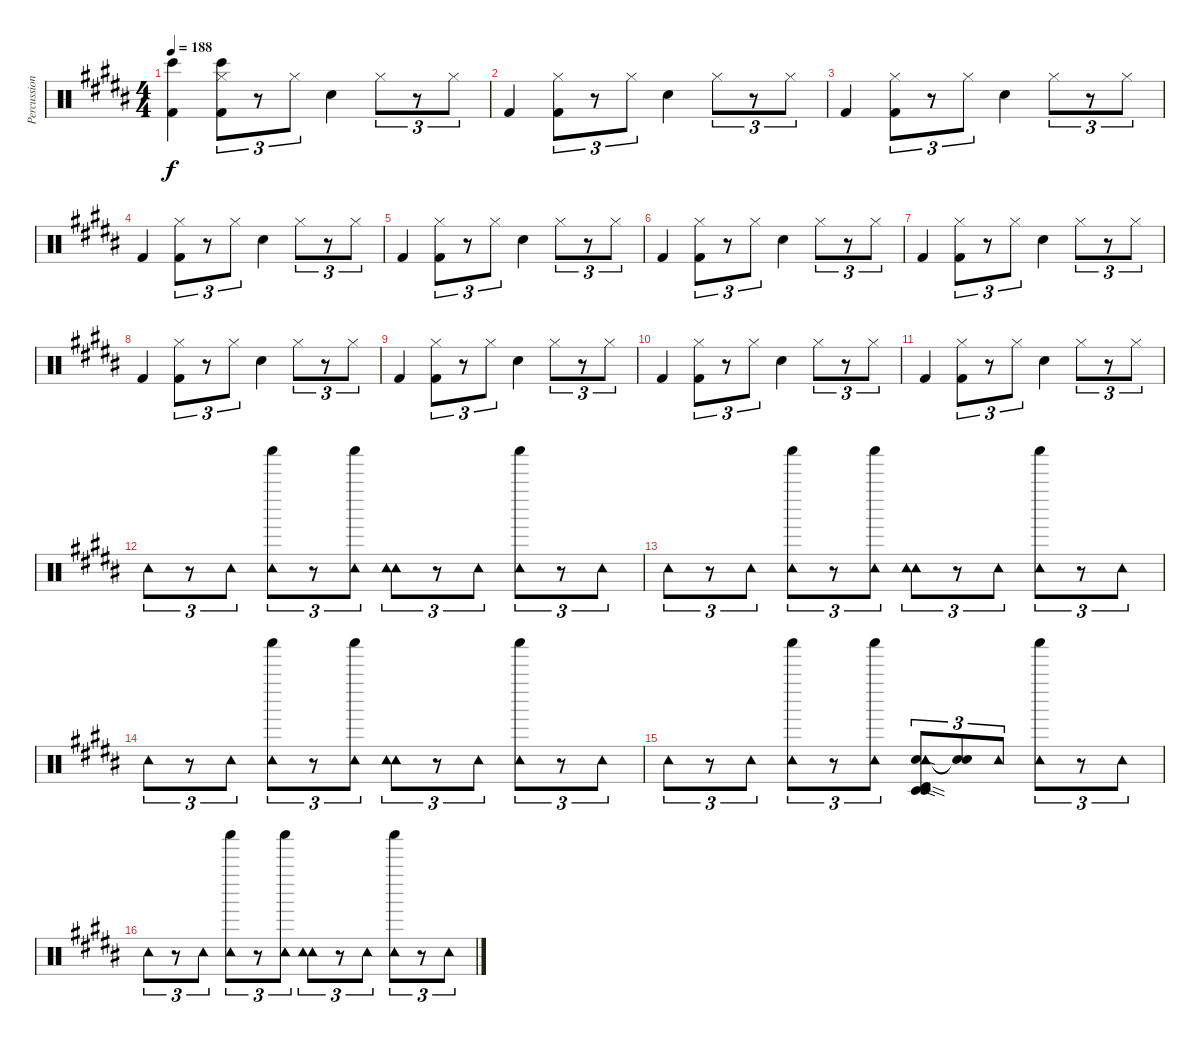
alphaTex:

\track ("Percussion" "Percussion") {instrument percussion}
\staff {score}
\articulation defaults
\ts (4 4)
\tempo 188
\clef neutral
\ks b
("Bongo High (hit)" "Kick (hit) 2").4{dy f} ("Bongo High (hit)" "Hi-Hat (closed)" "Kick (hit) 2").8{tu (3 2)} r.8{tu (3 2)} "Hi-Hat (closed)".8{tu (3 2)} "Electric Snare (hit)".4 "Hi-Hat (closed)".8{tu (3 2)} r.8{tu (3 2)} "Hi-Hat (closed)".8{tu (3 2)} |
"Kick (hit) 2".4 ("Hi-Hat (closed)" "Kick (hit) 2").8{tu (3 2)} r.8{tu (3 2)} "Hi-Hat (closed)".8{tu (3 2)} "Electric Snare (hit)".4 "Hi-Hat (closed)".8{tu (3 2)} r.8{tu (3 2)} "Hi-Hat (closed)".8{tu (3 2)} |
"Kick (hit) 2".4 ("Hi-Hat (closed)" "Kick (hit) 2").8{tu (3 2)} r.8{tu (3 2)} "Hi-Hat (closed)".8{tu (3 2)} "Electric Snare (hit)".4 "Hi-Hat (closed)".8{tu (3 2)} r.8{tu (3 2)} "Hi-Hat (closed)".8{tu (3 2)} |
"Kick (hit) 2".4 ("Hi-Hat (closed)" "Kick (hit) 2").8{tu (3 2)} r.8{tu (3 2)} "Hi-Hat (closed)".8{tu (3 2)} "Electric Snare (hit)".4 "Hi-Hat (closed)".8{tu (3 2)} r.8{tu (3 2)} "Hi-Hat (closed)".8{tu (3 2)} |
"Kick (hit) 2".4 ("Hi-Hat (closed)" "Kick (hit) 2").8{tu (3 2)} r.8{tu (3 2)} "Hi-Hat (closed)".8{tu (3 2)} "Electric Snare (hit)".4 "Hi-Hat (closed)".8{tu (3 2)} r.8{tu (3 2)} "Hi-Hat (closed)".8{tu (3 2)} |
"Kick (hit) 2".4 ("Hi-Hat (closed)" "Kick (hit) 2").8{tu (3 2)} r.8{tu (3 2)} "Hi-Hat (closed)".8{tu (3 2)} "Electric Snare (hit)".4 "Hi-Hat (closed)".8{tu (3 2)} r.8{tu (3 2)} "Hi-Hat (closed)".8{tu (3 2)} |
"Kick (hit) 2".4 ("Hi-Hat (closed)" "Kick (hit) 2").8{tu (3 2)} r.8{tu (3 2)} "Hi-Hat (closed)".8{tu (3 2)} "Electric Snare (hit)".4 "Hi-Hat (closed)".8{tu (3 2)} r.8{tu (3 2)} "Hi-Hat (closed)".8{tu (3 2)} |
"Kick (hit) 2".4 ("Hi-Hat (closed)" "Kick (hit) 2").8{tu (3 2)} r.8{tu (3 2)} "Hi-Hat (closed)".8{tu (3 2)} "Electric Snare (hit)".4 "Hi-Hat (closed)".8{tu (3 2)} r.8{tu (3 2)} "Hi-Hat (closed)".8{tu (3 2)} |
"Kick (hit) 2".4 ("Hi-Hat (closed)" "Kick (hit) 2").8{tu (3 2)} r.8{tu (3 2)} "Hi-Hat (closed)".8{tu (3 2)} "Electric Snare (hit)".4 "Hi-Hat (closed)".8{tu (3 2)} r.8{tu (3 2)} "Hi-Hat (closed)".8{tu (3 2)} |
"Kick (hit) 2".4 ("Hi-Hat (closed)" "Kick (hit) 2").8{tu (3 2)} r.8{tu (3 2)} "Hi-Hat (closed)".8{tu (3 2)} "Electric Snare (hit)".4 "Hi-Hat (closed)".8{tu (3 2)} r.8{tu (3 2)} "Hi-Hat (closed)".8{tu (3 2)} |
"Kick (hit) 2".4 ("Hi-Hat (closed)" "Kick (hit) 2").8{tu (3 2)} r.8{tu (3 2)} "Hi-Hat (closed)".8{tu (3 2)} "Electric Snare (hit)".4 "Hi-Hat (closed)".8{tu (3 2)} r.8{tu (3 2)} "Hi-Hat (closed)".8{tu (3 2)} |
"Tambourine (hit)".8{tu (3 2)} r.8{tu (3 2)} "Tambourine (hit)".8{tu (3 2)} ("Shaker (hit)" "Tambourine (hit)").8{tu (3 2)} r.8{tu (3 2)} ("Shaker (hit)" "Tambourine (hit)").8{tu (3 2)} ("Tambourine (hit)" "Tambourine (hit)").8{tu (3 2)} r.8{tu (3 2)} "Tambourine (hit)".8{tu (3 2)} ("Shaker (hit)" "Tambourine (hit)").8{tu (3 2)} r.8{tu (3 2)} "Tambourine (hit)".8{tu (3 2)} |
"Tambourine (hit)".8{tu (3 2)} r.8{tu (3 2)} "Tambourine (hit)".8{tu (3 2)} ("Shaker (hit)" "Tambourine (hit)").8{tu (3 2)} r.8{tu (3 2)} ("Shaker (hit)" "Tambourine (hit)").8{tu (3 2)} ("Tambourine (hit)" "Tambourine (hit)").8{tu (3 2)} r.8{tu (3 2)} "Tambourine (hit)".8{tu (3 2)} ("Shaker (hit)" "Tambourine (hit)").8{tu (3 2)} r.8{tu (3 2)} "Tambourine (hit)".8{tu (3 2)} |
"Tambourine (hit)".8{tu (3 2)} r.8{tu (3 2)} "Tambourine (hit)".8{tu (3 2)} ("Shaker (hit)" "Tambourine (hit)").8{tu (3 2)} r.8{tu (3 2)} ("Shaker (hit)" "Tambourine (hit)").8{tu (3 2)} ("Tambourine (hit)" "Tambourine (hit)").8{tu (3 2)} r.8{tu (3 2)} "Tambourine (hit)".8{tu (3 2)} ("Shaker (hit)" "Tambourine (hit)").8{tu (3 2)} r.8{tu (3 2)} "Tambourine (hit)".8{tu (3 2)} |
"Tambourine (hit)".8{tu (3 2)} r.8{tu (3 2)} "Tambourine (hit)".8{tu (3 2)} ("Shaker (hit)" "Tambourine (hit)").8{tu (3 2)} r.8{tu (3 2)} ("Shaker (hit)" "Tambourine (hit)").8{tu (3 2)} ("Electric Snare (hit)"{sod} "Tambourine (hit)" "Tambourine (hit)" "Timbale low (hit)"{sod} "Timbale high (hit)"{sod} "Timbale low (hit)"{sod}).8{tu (3 2)} ("Snare (hit)"{t} "Snare (hit)"{t}).8{tu (3 2)} "Tambourine (hit)".8{tu (3 2)} ("Shaker (hit)" "Tambourine (hit)").8{tu (3 2)} r.8{tu (3 2)} "Tambourine (hit)".8{tu (3 2)} |
"Tambourine (hit)".8{tu (3 2)} r.8{tu (3 2)} "Tambourine (hit)".8{tu (3 2)} ("Shaker (hit)" "Tambourine (hit)").8{tu (3 2)} r.8{tu (3 2)} ("Shaker (hit)" "Tambourine (hit)").8{tu (3 2)} ("Tambourine (hit)" "Tambourine (hit)").8{tu (3 2)} r.8{tu (3 2)} "Tambourine (hit)".8{tu (3 2)} ("Shaker (hit)" "Tambourine (hit)").8{tu (3 2)} r.8{tu (3 2)} "Tambourine (hit)".8{tu (3 2)}
